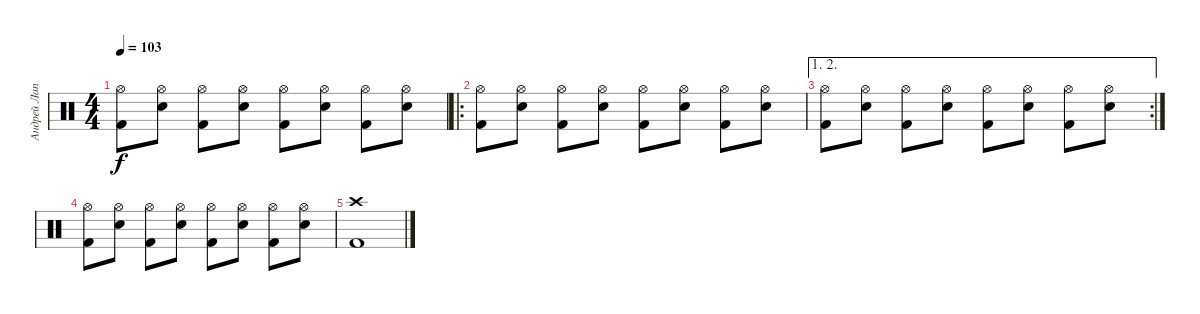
\track ("Андрей Лаптев" "Андрей Лап") {instrument percussion}
\staff {score}
\articulation defaults
\ts (4 4)
\tempo 103
\clef neutral
\ks c
("Hi-Hat (open)" "Kick (hit) 2").8{dy f} ("Hi-Hat (open)" "Electric Snare (hit)").8 ("Hi-Hat (open)" "Kick (hit) 2").8 ("Hi-Hat (open)" "Electric Snare (hit)").8 ("Hi-Hat (open)" "Kick (hit) 2").8 ("Hi-Hat (open)" "Electric Snare (hit)").8 ("Hi-Hat (open)" "Kick (hit) 2").8 ("Hi-Hat (open)" "Electric Snare (hit)").8 |
\ro
("Hi-Hat (open)" "Kick (hit) 2").8 ("Hi-Hat (open)" "Electric Snare (hit)").8 ("Hi-Hat (open)" "Kick (hit) 2").8 ("Hi-Hat (open)" "Electric Snare (hit)").8 ("Hi-Hat (open)" "Kick (hit) 2").8 ("Hi-Hat (open)" "Electric Snare (hit)").8 ("Hi-Hat (open)" "Kick (hit) 2").8 ("Hi-Hat (open)" "Electric Snare (hit)").8 |
\ae (1 2)
\rc 2
("Hi-Hat (open)" "Kick (hit) 2").8 ("Hi-Hat (open)" "Electric Snare (hit)").8 ("Hi-Hat (open)" "Kick (hit) 2").8 ("Hi-Hat (open)" "Electric Snare (hit)").8 ("Hi-Hat (open)" "Kick (hit) 2").8 ("Hi-Hat (open)" "Electric Snare (hit)").8 ("Hi-Hat (open)" "Kick (hit) 2").8 ("Hi-Hat (open)" "Electric Snare (hit)").8 |
("Hi-Hat (open)" "Kick (hit) 2").8 ("Hi-Hat (open)" "Electric Snare (hit)").8 ("Hi-Hat (open)" "Kick (hit) 2").8 ("Hi-Hat (open)" "Electric Snare (hit)").8 ("Hi-Hat (open)" "Kick (hit) 2").8 ("Hi-Hat (open)" "Electric Snare (hit)").8 ("Hi-Hat (open)" "Kick (hit) 2").8 ("Hi-Hat (open)" "Electric Snare (hit)").8 |
("Crash high (hit)" "Kick (hit) 2").1{volume 0}
